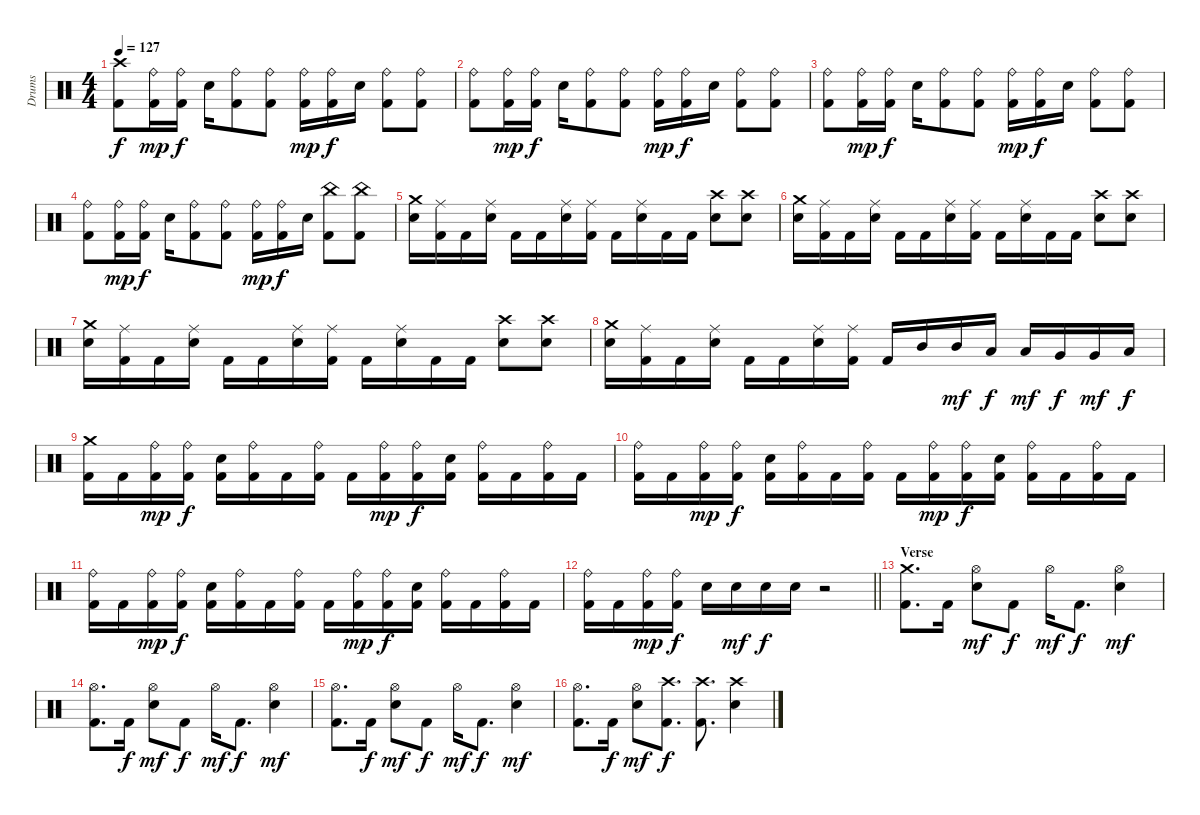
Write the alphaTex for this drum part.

\track ("Drums" "Drums") {instrument percussion}
\staff {score}
\articulation defaults
\ts (4 4)
\tempo 127
\clef neutral
\ks c
("Kick (hit) 2" "Crash high (hit)").8{dy f} ("Kick (hit) 2" "Ride (bell)").16{dy mp} ("Kick (hit) 2" "Ride (bell)").16{dy f} "Electric Snare (hit)".16 ("Kick (hit) 2" "Ride (bell)").8 ("Kick (hit) 2" "Ride (bell)").8 ("Kick (hit) 2" "Ride (bell)").16{dy mp} ("Kick (hit) 2" "Ride (bell)").16{dy f} "Electric Snare (hit)".16 ("Kick (hit) 2" "Ride (bell)").8 ("Kick (hit) 2" "Ride (bell)").8 |
("Kick (hit) 2" "Ride (bell)").8 ("Kick (hit) 2" "Ride (bell)").16{dy mp} ("Kick (hit) 2" "Ride (bell)").16{dy f} "Electric Snare (hit)".16 ("Kick (hit) 2" "Ride (bell)").8 ("Kick (hit) 2" "Ride (bell)").8 ("Kick (hit) 2" "Ride (bell)").16{dy mp} ("Kick (hit) 2" "Ride (bell)").16{dy f} "Electric Snare (hit)".16 ("Kick (hit) 2" "Ride (bell)").8 ("Kick (hit) 2" "Ride (bell)").8 |
("Kick (hit) 2" "Ride (bell)").8 ("Kick (hit) 2" "Ride (bell)").16{dy mp} ("Kick (hit) 2" "Ride (bell)").16{dy f} "Electric Snare (hit)".16 ("Kick (hit) 2" "Ride (bell)").8 ("Kick (hit) 2" "Ride (bell)").8 ("Kick (hit) 2" "Ride (bell)").16{dy mp} ("Kick (hit) 2" "Ride (bell)").16{dy f} "Electric Snare (hit)".16 ("Kick (hit) 2" "Ride (bell)").8 ("Kick (hit) 2" "Ride (bell)").8 |
("Kick (hit) 2" "Ride (bell)").8 ("Kick (hit) 2" "Ride (bell)").16{dy mp} ("Kick (hit) 2" "Ride (bell)").16{dy f} "Electric Snare (hit)".16 ("Kick (hit) 2" "Ride (bell)").8 ("Kick (hit) 2" "Ride (bell)").8 ("Kick (hit) 2" "Ride (bell)").16{dy mp} ("Kick (hit) 2" "Ride (bell)").16{dy f} "Electric Snare (hit)".16 ("Kick (hit) 2" "China (hit)").8 ("Kick (hit) 2" "China (hit)").8 |
("Crash medium (hit)" "Electric Snare (hit)").16 ("Kick (hit) 2" "Ride (middle)").16 "Kick (hit) 2".16 ("Ride (middle)" "Electric Snare (hit)").16 "Kick (hit) 2".16 "Kick (hit) 2".16 ("Ride (middle)" "Electric Snare (hit)").16 ("Kick (hit) 2" "Ride (middle)").16 "Kick (hit) 2".16 ("Ride (middle)" "Electric Snare (hit)").16 "Kick (hit) 2".16 "Kick (hit) 2".16 ("Crash high (hit)" "Electric Snare (hit)").8 ("Crash high (hit)" "Electric Snare (hit)").8 |
("Crash medium (hit)" "Electric Snare (hit)").16 ("Kick (hit) 2" "Ride (middle)").16 "Kick (hit) 2".16 ("Ride (middle)" "Electric Snare (hit)").16 "Kick (hit) 2".16 "Kick (hit) 2".16 ("Ride (middle)" "Electric Snare (hit)").16 ("Kick (hit) 2" "Ride (middle)").16 "Kick (hit) 2".16 ("Ride (middle)" "Electric Snare (hit)").16 "Kick (hit) 2".16 "Kick (hit) 2".16 ("Crash high (hit)" "Electric Snare (hit)").8 ("Crash high (hit)" "Electric Snare (hit)").8 |
("Crash medium (hit)" "Electric Snare (hit)").16 ("Kick (hit) 2" "Ride (middle)").16 "Kick (hit) 2".16 ("Ride (middle)" "Electric Snare (hit)").16 "Kick (hit) 2".16 "Kick (hit) 2".16 ("Ride (middle)" "Electric Snare (hit)").16 ("Kick (hit) 2" "Ride (middle)").16 "Kick (hit) 2".16 ("Ride (middle)" "Electric Snare (hit)").16 "Kick (hit) 2".16 "Kick (hit) 2".16 ("Crash high (hit)" "Electric Snare (hit)").8 ("Crash high (hit)" "Electric Snare (hit)").8 |
("Crash medium (hit)" "Electric Snare (hit)").16 ("Kick (hit) 2" "Ride (middle)").16 "Kick (hit) 2".16 ("Ride (middle)" "Electric Snare (hit)").16 "Kick (hit) 2".16 "Kick (hit) 2".16 ("Ride (middle)" "Electric Snare (hit)").16 ("Kick (hit) 2" "Ride (middle)").16 "Kick (hit) 2".16 "Mid Tom (hit)".16 "Mid Tom (hit)".16{dy mf} "Low Tom (hit)".16{dy f} "Low Tom (hit)".16{dy mf} "Very Low Tom (hit)".16{dy f} "Very Low Tom (hit)".16{dy mf} "Low Floor Tom (hit)".16{dy f} |
("Kick (hit) 2" "Crash medium (hit)").16 "Kick (hit) 2".16 ("Kick (hit) 2" "Ride (bell)").16{dy mp} ("Kick (hit) 2" "Ride (bell)").16{dy f} ("Kick (hit) 2" "Electric Snare (hit)").16 ("Kick (hit) 2" "Ride (bell)").16 "Kick (hit) 2".16 ("Kick (hit) 2" "Ride (bell)").16 "Kick (hit) 2".16 ("Kick (hit) 2" "Ride (bell)").16{dy mp} ("Kick (hit) 2" "Ride (bell)").16{dy f} ("Kick (hit) 2" "Electric Snare (hit)").16 ("Kick (hit) 2" "Ride (bell)").16 "Kick (hit) 2".16 ("Kick (hit) 2" "Ride (bell)").16 "Kick (hit) 2".16 |
("Kick (hit) 2" "Ride (bell)").16 "Kick (hit) 2".16 ("Kick (hit) 2" "Ride (bell)").16{dy mp} ("Kick (hit) 2" "Ride (bell)").16{dy f} ("Kick (hit) 2" "Electric Snare (hit)").16 ("Kick (hit) 2" "Ride (bell)").16 "Kick (hit) 2".16 ("Kick (hit) 2" "Ride (bell)").16 "Kick (hit) 2".16 ("Kick (hit) 2" "Ride (bell)").16{dy mp} ("Kick (hit) 2" "Ride (bell)").16{dy f} ("Kick (hit) 2" "Electric Snare (hit)").16 ("Kick (hit) 2" "Ride (bell)").16 "Kick (hit) 2".16 ("Kick (hit) 2" "Ride (bell)").16 "Kick (hit) 2".16 |
("Kick (hit) 2" "Ride (bell)").16 "Kick (hit) 2".16 ("Kick (hit) 2" "Ride (bell)").16{dy mp} ("Kick (hit) 2" "Ride (bell)").16{dy f} ("Kick (hit) 2" "Electric Snare (hit)").16 ("Kick (hit) 2" "Ride (bell)").16 "Kick (hit) 2".16 ("Kick (hit) 2" "Ride (bell)").16 "Kick (hit) 2".16 ("Kick (hit) 2" "Ride (bell)").16{dy mp} ("Kick (hit) 2" "Ride (bell)").16{dy f} ("Kick (hit) 2" "Electric Snare (hit)").16 ("Kick (hit) 2" "Ride (bell)").16 "Kick (hit) 2".16 ("Kick (hit) 2" "Ride (bell)").16 "Kick (hit) 2".16 |
\barLineRight lightlight
("Kick (hit) 2" "Ride (bell)").16 "Kick (hit) 2".16 ("Kick (hit) 2" "Ride (bell)").16{dy mp} ("Kick (hit) 2" "Ride (bell)").16{dy f} "Electric Snare (hit)".16 "Electric Snare (hit)".16{dy mf} "Electric Snare (hit)".16{dy f} "Electric Snare (hit)".16 r.2 |
\section ("" "Verse")
("Kick (hit) 2" "Crash medium (hit)").8{d} "Kick (hit) 2".16 ("Hi-Hat (open)" "Electric Snare (hit)").8{dy mf} "Kick (hit) 2".8{dy f} "Hi-Hat (open)".16{dy mf} "Kick (hit) 2".8{d dy f} ("Hi-Hat (open)" "Electric Snare (hit)").4{dy mf} |
("Kick (hit) 2" "Hi-Hat (open)").8{d} "Kick (hit) 2".16{dy f} ("Hi-Hat (open)" "Electric Snare (hit)").8{dy mf} "Kick (hit) 2".8{dy f} "Hi-Hat (open)".16{dy mf} "Kick (hit) 2".8{d dy f} ("Hi-Hat (open)" "Electric Snare (hit)").4{dy mf} |
("Kick (hit) 2" "Hi-Hat (open)").8{d} "Kick (hit) 2".16{dy f} ("Hi-Hat (open)" "Electric Snare (hit)").8{dy mf} "Kick (hit) 2".8{dy f} "Hi-Hat (open)".16{dy mf} "Kick (hit) 2".8{d dy f} ("Hi-Hat (open)" "Electric Snare (hit)").4{dy mf} |
("Kick (hit) 2" "Hi-Hat (open)").8{d} "Kick (hit) 2".16{dy f} ("Hi-Hat (open)" "Electric Snare (hit)").8{dy mf} ("Kick (hit) 2" "Crash high (hit)").8{d dy f} ("Kick (hit) 2" "Crash high (hit)").8{d} ("Crash high (hit)" "Electric Snare (hit)").4
